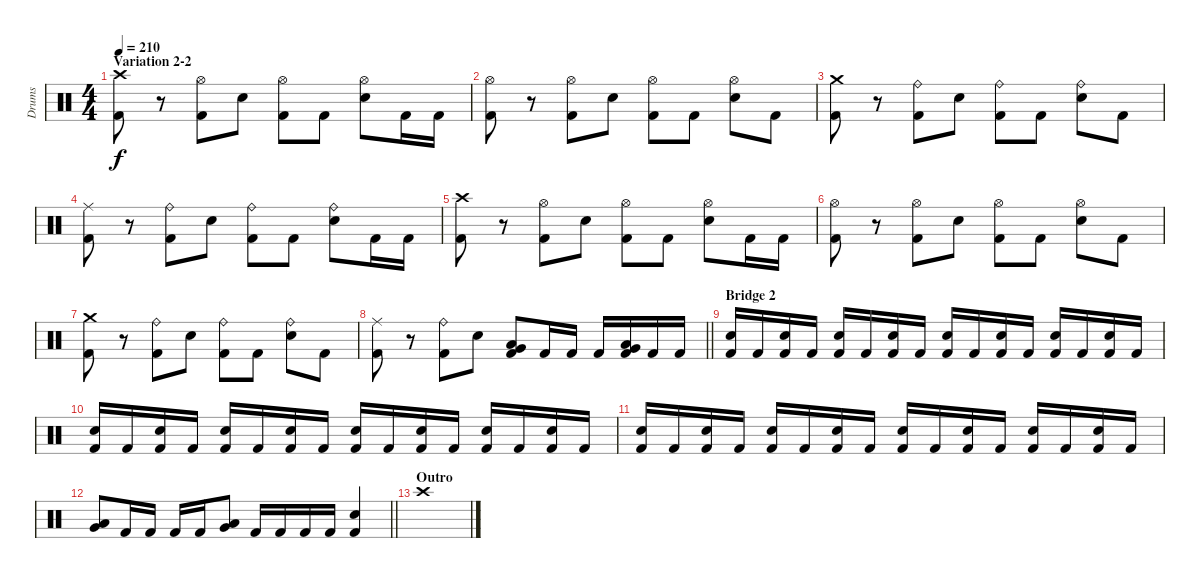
\track ("Drums" "Drums") {instrument percussion}
\staff {score}
\articulation defaults
\ts (4 4)
\section ("" "Variation 2-2")
\tempo 210
\clef neutral
\ks c
("Crash high (hit)" "Kick (hit) 2").8{dy f} r.8 ("Hi-Hat (open)" "Kick (hit) 2").8 "Snare (hit) 2".8 ("Hi-Hat (open)" "Kick (hit) 2").8 "Kick (hit) 2".8 ("Hi-Hat (open)" "Snare (hit) 2").8 "Kick (hit) 2".16 "Kick (hit) 2".16 |
("Hi-Hat (open)" "Kick (hit) 2").8 r.8 ("Hi-Hat (open)" "Kick (hit) 2").8 "Snare (hit) 2".8 ("Hi-Hat (open)" "Kick (hit) 2").8 "Kick (hit) 2".8 ("Hi-Hat (open)" "Snare (hit) 2").8 "Kick (hit) 2".8 |
("Crash medium (hit)" "Kick (hit) 2").8 r.8 ("Ride (bell)" "Kick (hit) 2").8 "Snare (hit) 2".8 ("Ride (bell)" "Kick (hit) 2").8 "Kick (hit) 2".8 ("Ride (bell)" "Snare (hit) 2").8 "Kick (hit) 2".8 |
("Ride (middle)" "Kick (hit) 2").8 r.8 ("Ride (bell)" "Kick (hit) 2").8 "Snare (hit) 2".8 ("Ride (bell)" "Kick (hit) 2").8 "Kick (hit) 2".8 ("Ride (bell)" "Snare (hit) 2").8 "Kick (hit) 2".16 "Kick (hit) 2".16 |
("Crash high (hit)" "Kick (hit) 2").8 r.8 ("Hi-Hat (open)" "Kick (hit) 2").8 "Snare (hit) 2".8 ("Hi-Hat (open)" "Kick (hit) 2").8 "Kick (hit) 2".8 ("Hi-Hat (open)" "Snare (hit) 2").8 "Kick (hit) 2".16 "Kick (hit) 2".16 |
("Hi-Hat (open)" "Kick (hit) 2").8 r.8 ("Hi-Hat (open)" "Kick (hit) 2").8 "Snare (hit) 2".8 ("Hi-Hat (open)" "Kick (hit) 2").8 "Kick (hit) 2".8 ("Hi-Hat (open)" "Snare (hit) 2").8 "Kick (hit) 2".8 |
("Crash medium (hit)" "Kick (hit) 2").8 r.8 ("Ride (bell)" "Kick (hit) 2").8 "Snare (hit) 2".8 ("Ride (bell)" "Kick (hit) 2").8 "Kick (hit) 2".8 ("Ride (bell)" "Snare (hit) 2").8 "Kick (hit) 2".8 |
\barLineRight lightlight
("Ride (middle)" "Kick (hit) 2").8 r.8 ("Ride (bell)" "Kick (hit) 2").8 "Snare (hit) 2".8 ("Low Tom (hit)" "Very Low Tom (hit)" "Kick (hit) 2").8 "Kick (hit) 2".16 "Kick (hit) 2".16 "Kick (hit) 2".16 ("Low Tom (hit)" "Very Low Tom (hit)" "Kick (hit) 2").16 "Kick (hit) 2".16 "Kick (hit) 2".16 |
\section ("" "Bridge 2")
("Snare (hit) 2" "Kick (hit) 2").16 "Kick (hit) 2".16 ("Snare (hit) 2" "Kick (hit) 2").16 "Kick (hit) 2".16 ("Snare (hit) 2" "Kick (hit) 2").16 "Kick (hit) 2".16 ("Snare (hit) 2" "Kick (hit) 2").16 "Kick (hit) 2".16 ("Snare (hit) 2" "Kick (hit) 2").16 "Kick (hit) 2".16 ("Snare (hit) 2" "Kick (hit) 2").16 "Kick (hit) 2".16 ("Snare (hit) 2" "Kick (hit) 2").16 "Kick (hit) 2".16 ("Snare (hit) 2" "Kick (hit) 2").16 "Kick (hit) 2".16 |
("Snare (hit) 2" "Kick (hit) 2").16 "Kick (hit) 2".16 ("Snare (hit) 2" "Kick (hit) 2").16 "Kick (hit) 2".16 ("Snare (hit) 2" "Kick (hit) 2").16 "Kick (hit) 2".16 ("Snare (hit) 2" "Kick (hit) 2").16 "Kick (hit) 2".16 ("Snare (hit) 2" "Kick (hit) 2").16 "Kick (hit) 2".16 ("Snare (hit) 2" "Kick (hit) 2").16 "Kick (hit) 2".16 ("Snare (hit) 2" "Kick (hit) 2").16 "Kick (hit) 2".16 ("Snare (hit) 2" "Kick (hit) 2").16 "Kick (hit) 2".16 |
("Snare (hit) 2" "Kick (hit) 2").16 "Kick (hit) 2".16 ("Snare (hit) 2" "Kick (hit) 2").16 "Kick (hit) 2".16 ("Snare (hit) 2" "Kick (hit) 2").16 "Kick (hit) 2".16 ("Snare (hit) 2" "Kick (hit) 2").16 "Kick (hit) 2".16 ("Snare (hit) 2" "Kick (hit) 2").16 "Kick (hit) 2".16 ("Snare (hit) 2" "Kick (hit) 2").16 "Kick (hit) 2".16 ("Snare (hit) 2" "Kick (hit) 2").16 "Kick (hit) 2".16 ("Snare (hit) 2" "Kick (hit) 2").16 "Kick (hit) 2".16 |
\barLineRight lightlight
("Low Tom (hit)" "Very Low Tom (hit)").8 "Kick (hit) 2".16 "Kick (hit) 2".16 "Kick (hit) 2".16 "Kick (hit) 2".16 ("Low Tom (hit)" "Very Low Tom (hit)").8 "Kick (hit) 2".16 "Kick (hit) 2".16 "Kick (hit) 2".16 "Kick (hit) 2".16 ("Snare (hit) 2" "Kick (hit) 2").4 |
\section ("" "Outro")
"Crash high (hit)".1
